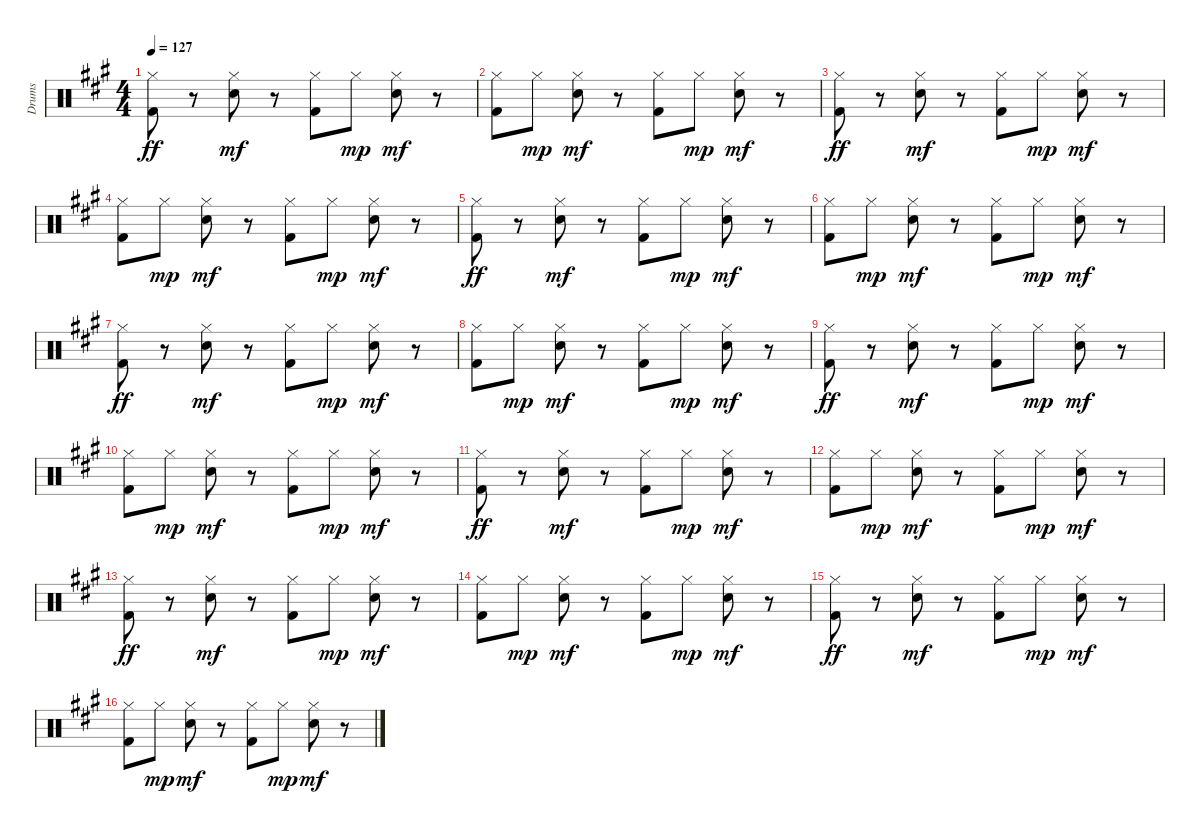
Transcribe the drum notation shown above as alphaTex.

\track ("Drums" "Drums") {instrument percussion}
\staff {score}
\articulation defaults
\ts (4 4)
\tempo 127
\clef neutral
\ks a
("Hi-Hat (closed)" "Kick (hit) 2").8{dy ff} r.8 ("Hi-Hat (closed)" "Snare (hit) 2").8{dy mf} r.8 ("Hi-Hat (closed)" "Kick (hit) 2").8 "Hi-Hat (closed)".8{dy mp} ("Hi-Hat (closed)" "Snare (hit) 2").8{dy mf} r.8 |
("Hi-Hat (closed)" "Kick (hit) 2").8 "Hi-Hat (closed)".8{dy mp} ("Hi-Hat (closed)" "Snare (hit) 2").8{dy mf} r.8 ("Hi-Hat (closed)" "Kick (hit) 2").8 "Hi-Hat (closed)".8{dy mp} ("Hi-Hat (closed)" "Snare (hit) 2").8{dy mf} r.8 |
("Hi-Hat (closed)" "Kick (hit) 2").8{dy ff} r.8 ("Hi-Hat (closed)" "Snare (hit) 2").8{dy mf} r.8 ("Hi-Hat (closed)" "Kick (hit) 2").8 "Hi-Hat (closed)".8{dy mp} ("Hi-Hat (closed)" "Snare (hit) 2").8{dy mf} r.8 |
("Hi-Hat (closed)" "Kick (hit) 2").8 "Hi-Hat (closed)".8{dy mp} ("Hi-Hat (closed)" "Snare (hit) 2").8{dy mf} r.8 ("Hi-Hat (closed)" "Kick (hit) 2").8 "Hi-Hat (closed)".8{dy mp} ("Hi-Hat (closed)" "Snare (hit) 2").8{dy mf} r.8 |
("Hi-Hat (closed)" "Kick (hit) 2").8{dy ff} r.8 ("Hi-Hat (closed)" "Snare (hit) 2").8{dy mf} r.8 ("Hi-Hat (closed)" "Kick (hit) 2").8 "Hi-Hat (closed)".8{dy mp} ("Hi-Hat (closed)" "Snare (hit) 2").8{dy mf} r.8 |
("Hi-Hat (closed)" "Kick (hit) 2").8 "Hi-Hat (closed)".8{dy mp} ("Hi-Hat (closed)" "Snare (hit) 2").8{dy mf} r.8 ("Hi-Hat (closed)" "Kick (hit) 2").8 "Hi-Hat (closed)".8{dy mp} ("Hi-Hat (closed)" "Snare (hit) 2").8{dy mf} r.8 |
("Hi-Hat (closed)" "Kick (hit) 2").8{dy ff} r.8 ("Hi-Hat (closed)" "Snare (hit) 2").8{dy mf} r.8 ("Hi-Hat (closed)" "Kick (hit) 2").8 "Hi-Hat (closed)".8{dy mp} ("Hi-Hat (closed)" "Snare (hit) 2").8{dy mf} r.8 |
("Hi-Hat (closed)" "Kick (hit) 2").8 "Hi-Hat (closed)".8{dy mp} ("Hi-Hat (closed)" "Snare (hit) 2").8{dy mf} r.8 ("Hi-Hat (closed)" "Kick (hit) 2").8 "Hi-Hat (closed)".8{dy mp} ("Hi-Hat (closed)" "Snare (hit) 2").8{dy mf} r.8 |
("Hi-Hat (closed)" "Kick (hit) 2").8{dy ff} r.8 ("Hi-Hat (closed)" "Snare (hit) 2").8{dy mf} r.8 ("Hi-Hat (closed)" "Kick (hit) 2").8 "Hi-Hat (closed)".8{dy mp} ("Hi-Hat (closed)" "Snare (hit) 2").8{dy mf} r.8 |
("Hi-Hat (closed)" "Kick (hit) 2").8 "Hi-Hat (closed)".8{dy mp} ("Hi-Hat (closed)" "Snare (hit) 2").8{dy mf} r.8 ("Hi-Hat (closed)" "Kick (hit) 2").8 "Hi-Hat (closed)".8{dy mp} ("Hi-Hat (closed)" "Snare (hit) 2").8{dy mf} r.8 |
("Hi-Hat (closed)" "Kick (hit) 2").8{dy ff} r.8 ("Hi-Hat (closed)" "Snare (hit) 2").8{dy mf} r.8 ("Hi-Hat (closed)" "Kick (hit) 2").8 "Hi-Hat (closed)".8{dy mp} ("Hi-Hat (closed)" "Snare (hit) 2").8{dy mf} r.8 |
("Hi-Hat (closed)" "Kick (hit) 2").8 "Hi-Hat (closed)".8{dy mp} ("Hi-Hat (closed)" "Snare (hit) 2").8{dy mf} r.8 ("Hi-Hat (closed)" "Kick (hit) 2").8 "Hi-Hat (closed)".8{dy mp} ("Hi-Hat (closed)" "Snare (hit) 2").8{dy mf} r.8 |
("Hi-Hat (closed)" "Kick (hit) 2").8{dy ff} r.8 ("Hi-Hat (closed)" "Snare (hit) 2").8{dy mf} r.8 ("Hi-Hat (closed)" "Kick (hit) 2").8 "Hi-Hat (closed)".8{dy mp} ("Hi-Hat (closed)" "Snare (hit) 2").8{dy mf} r.8 |
("Hi-Hat (closed)" "Kick (hit) 2").8 "Hi-Hat (closed)".8{dy mp} ("Hi-Hat (closed)" "Snare (hit) 2").8{dy mf} r.8 ("Hi-Hat (closed)" "Kick (hit) 2").8 "Hi-Hat (closed)".8{dy mp} ("Hi-Hat (closed)" "Snare (hit) 2").8{dy mf} r.8 |
("Hi-Hat (closed)" "Kick (hit) 2").8{dy ff} r.8 ("Hi-Hat (closed)" "Snare (hit) 2").8{dy mf} r.8 ("Hi-Hat (closed)" "Kick (hit) 2").8 "Hi-Hat (closed)".8{dy mp} ("Hi-Hat (closed)" "Snare (hit) 2").8{dy mf} r.8 |
("Hi-Hat (closed)" "Kick (hit) 2").8 "Hi-Hat (closed)".8{dy mp} ("Hi-Hat (closed)" "Snare (hit) 2").8{dy mf} r.8 ("Hi-Hat (closed)" "Kick (hit) 2").8 "Hi-Hat (closed)".8{dy mp} ("Hi-Hat (closed)" "Snare (hit) 2").8{dy mf} r.8
